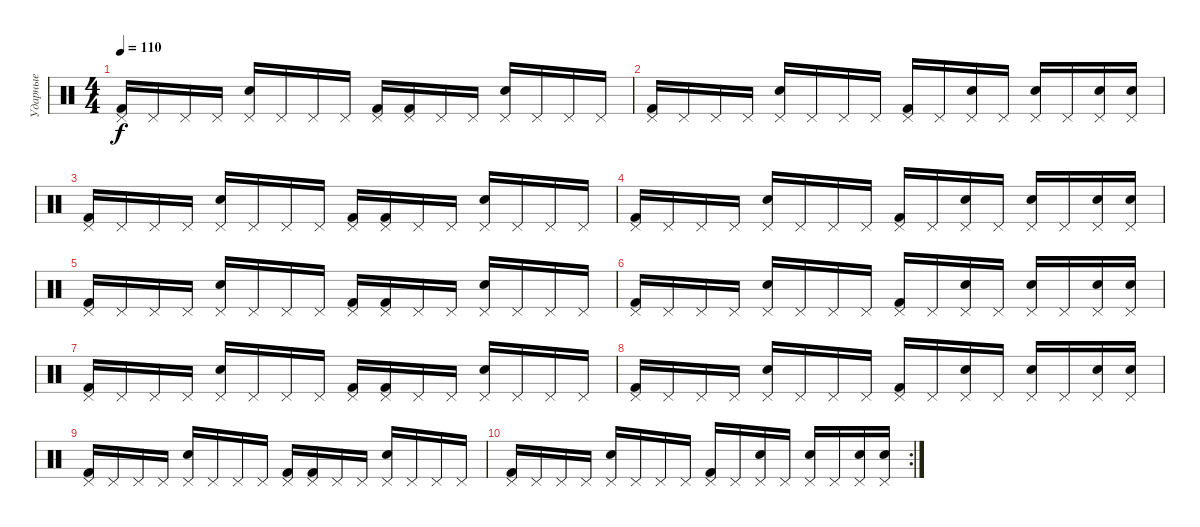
\track ("Ударные" "Ударные") {instrument percussion}
\staff {score}
\articulation defaults
\ts (4 4)
\tempo 110
\clef neutral
\ks c
("Pedal Hi-Hat (hit)" "Kick (hit) 2").16{dy f} "Pedal Hi-Hat (hit)".16 "Pedal Hi-Hat (hit)".16 "Pedal Hi-Hat (hit)".16 ("Pedal Hi-Hat (hit)" "Electric Snare (hit)").16 "Pedal Hi-Hat (hit)".16 "Pedal Hi-Hat (hit)".16 "Pedal Hi-Hat (hit)".16 ("Pedal Hi-Hat (hit)" "Kick (hit) 2").16 ("Pedal Hi-Hat (hit)" "Kick (hit) 2").16 "Pedal Hi-Hat (hit)".16 "Pedal Hi-Hat (hit)".16 ("Pedal Hi-Hat (hit)" "Electric Snare (hit)").16 "Pedal Hi-Hat (hit)".16 "Pedal Hi-Hat (hit)".16 "Pedal Hi-Hat (hit)".16 |
("Pedal Hi-Hat (hit)" "Kick (hit) 2").16 "Pedal Hi-Hat (hit)".16 "Pedal Hi-Hat (hit)".16 "Pedal Hi-Hat (hit)".16 ("Pedal Hi-Hat (hit)" "Electric Snare (hit)").16 "Pedal Hi-Hat (hit)".16 "Pedal Hi-Hat (hit)".16 "Pedal Hi-Hat (hit)".16 ("Pedal Hi-Hat (hit)" "Kick (hit) 2").16 "Pedal Hi-Hat (hit)".16 ("Pedal Hi-Hat (hit)" "Electric Snare (hit)").16 "Pedal Hi-Hat (hit)".16 ("Pedal Hi-Hat (hit)" "Electric Snare (hit)").16 "Pedal Hi-Hat (hit)".16 ("Pedal Hi-Hat (hit)" "Electric Snare (hit)").16 ("Pedal Hi-Hat (hit)" "Electric Snare (hit)").16 |
("Pedal Hi-Hat (hit)" "Kick (hit) 2").16 "Pedal Hi-Hat (hit)".16 "Pedal Hi-Hat (hit)".16 "Pedal Hi-Hat (hit)".16 ("Pedal Hi-Hat (hit)" "Electric Snare (hit)").16 "Pedal Hi-Hat (hit)".16 "Pedal Hi-Hat (hit)".16 "Pedal Hi-Hat (hit)".16 ("Pedal Hi-Hat (hit)" "Kick (hit) 2").16 ("Pedal Hi-Hat (hit)" "Kick (hit) 2").16 "Pedal Hi-Hat (hit)".16 "Pedal Hi-Hat (hit)".16 ("Pedal Hi-Hat (hit)" "Electric Snare (hit)").16 "Pedal Hi-Hat (hit)".16 "Pedal Hi-Hat (hit)".16 "Pedal Hi-Hat (hit)".16 |
("Pedal Hi-Hat (hit)" "Kick (hit) 2").16 "Pedal Hi-Hat (hit)".16 "Pedal Hi-Hat (hit)".16 "Pedal Hi-Hat (hit)".16 ("Pedal Hi-Hat (hit)" "Electric Snare (hit)").16 "Pedal Hi-Hat (hit)".16 "Pedal Hi-Hat (hit)".16 "Pedal Hi-Hat (hit)".16 ("Pedal Hi-Hat (hit)" "Kick (hit) 2").16 "Pedal Hi-Hat (hit)".16 ("Pedal Hi-Hat (hit)" "Electric Snare (hit)").16 "Pedal Hi-Hat (hit)".16 ("Pedal Hi-Hat (hit)" "Electric Snare (hit)").16 "Pedal Hi-Hat (hit)".16 ("Pedal Hi-Hat (hit)" "Electric Snare (hit)").16 ("Pedal Hi-Hat (hit)" "Electric Snare (hit)").16 |
("Pedal Hi-Hat (hit)" "Kick (hit) 2").16 "Pedal Hi-Hat (hit)".16 "Pedal Hi-Hat (hit)".16 "Pedal Hi-Hat (hit)".16 ("Pedal Hi-Hat (hit)" "Electric Snare (hit)").16 "Pedal Hi-Hat (hit)".16 "Pedal Hi-Hat (hit)".16 "Pedal Hi-Hat (hit)".16 ("Pedal Hi-Hat (hit)" "Kick (hit) 2").16 ("Pedal Hi-Hat (hit)" "Kick (hit) 2").16 "Pedal Hi-Hat (hit)".16 "Pedal Hi-Hat (hit)".16 ("Pedal Hi-Hat (hit)" "Electric Snare (hit)").16 "Pedal Hi-Hat (hit)".16 "Pedal Hi-Hat (hit)".16 "Pedal Hi-Hat (hit)".16 |
("Pedal Hi-Hat (hit)" "Kick (hit) 2").16 "Pedal Hi-Hat (hit)".16 "Pedal Hi-Hat (hit)".16 "Pedal Hi-Hat (hit)".16 ("Pedal Hi-Hat (hit)" "Electric Snare (hit)").16 "Pedal Hi-Hat (hit)".16 "Pedal Hi-Hat (hit)".16 "Pedal Hi-Hat (hit)".16 ("Pedal Hi-Hat (hit)" "Kick (hit) 2").16 "Pedal Hi-Hat (hit)".16 ("Pedal Hi-Hat (hit)" "Electric Snare (hit)").16 "Pedal Hi-Hat (hit)".16 ("Pedal Hi-Hat (hit)" "Electric Snare (hit)").16 "Pedal Hi-Hat (hit)".16 ("Pedal Hi-Hat (hit)" "Electric Snare (hit)").16 ("Pedal Hi-Hat (hit)" "Electric Snare (hit)").16 |
("Pedal Hi-Hat (hit)" "Kick (hit) 2").16 "Pedal Hi-Hat (hit)".16 "Pedal Hi-Hat (hit)".16 "Pedal Hi-Hat (hit)".16 ("Pedal Hi-Hat (hit)" "Electric Snare (hit)").16 "Pedal Hi-Hat (hit)".16 "Pedal Hi-Hat (hit)".16 "Pedal Hi-Hat (hit)".16 ("Pedal Hi-Hat (hit)" "Kick (hit) 2").16 ("Pedal Hi-Hat (hit)" "Kick (hit) 2").16 "Pedal Hi-Hat (hit)".16 "Pedal Hi-Hat (hit)".16 ("Pedal Hi-Hat (hit)" "Electric Snare (hit)").16 "Pedal Hi-Hat (hit)".16 "Pedal Hi-Hat (hit)".16 "Pedal Hi-Hat (hit)".16 |
("Pedal Hi-Hat (hit)" "Kick (hit) 2").16 "Pedal Hi-Hat (hit)".16 "Pedal Hi-Hat (hit)".16 "Pedal Hi-Hat (hit)".16 ("Pedal Hi-Hat (hit)" "Electric Snare (hit)").16 "Pedal Hi-Hat (hit)".16 "Pedal Hi-Hat (hit)".16 "Pedal Hi-Hat (hit)".16 ("Pedal Hi-Hat (hit)" "Kick (hit) 2").16 "Pedal Hi-Hat (hit)".16 ("Pedal Hi-Hat (hit)" "Electric Snare (hit)").16 "Pedal Hi-Hat (hit)".16 ("Pedal Hi-Hat (hit)" "Electric Snare (hit)").16 "Pedal Hi-Hat (hit)".16 ("Pedal Hi-Hat (hit)" "Electric Snare (hit)").16 ("Pedal Hi-Hat (hit)" "Electric Snare (hit)").16 |
("Pedal Hi-Hat (hit)" "Kick (hit) 2").16 "Pedal Hi-Hat (hit)".16 "Pedal Hi-Hat (hit)".16 "Pedal Hi-Hat (hit)".16 ("Pedal Hi-Hat (hit)" "Electric Snare (hit)").16 "Pedal Hi-Hat (hit)".16 "Pedal Hi-Hat (hit)".16 "Pedal Hi-Hat (hit)".16 ("Pedal Hi-Hat (hit)" "Kick (hit) 2").16 ("Pedal Hi-Hat (hit)" "Kick (hit) 2").16 "Pedal Hi-Hat (hit)".16 "Pedal Hi-Hat (hit)".16 ("Pedal Hi-Hat (hit)" "Electric Snare (hit)").16 "Pedal Hi-Hat (hit)".16 "Pedal Hi-Hat (hit)".16 "Pedal Hi-Hat (hit)".16 |
\rc 2
("Pedal Hi-Hat (hit)" "Kick (hit) 2").16 "Pedal Hi-Hat (hit)".16 "Pedal Hi-Hat (hit)".16 "Pedal Hi-Hat (hit)".16 ("Pedal Hi-Hat (hit)" "Electric Snare (hit)").16 "Pedal Hi-Hat (hit)".16 "Pedal Hi-Hat (hit)".16 "Pedal Hi-Hat (hit)".16 ("Pedal Hi-Hat (hit)" "Kick (hit) 2").16 "Pedal Hi-Hat (hit)".16 ("Pedal Hi-Hat (hit)" "Electric Snare (hit)").16 "Pedal Hi-Hat (hit)".16 ("Pedal Hi-Hat (hit)" "Electric Snare (hit)").16 "Pedal Hi-Hat (hit)".16 ("Pedal Hi-Hat (hit)" "Electric Snare (hit)").16 ("Pedal Hi-Hat (hit)" "Electric Snare (hit)").16
